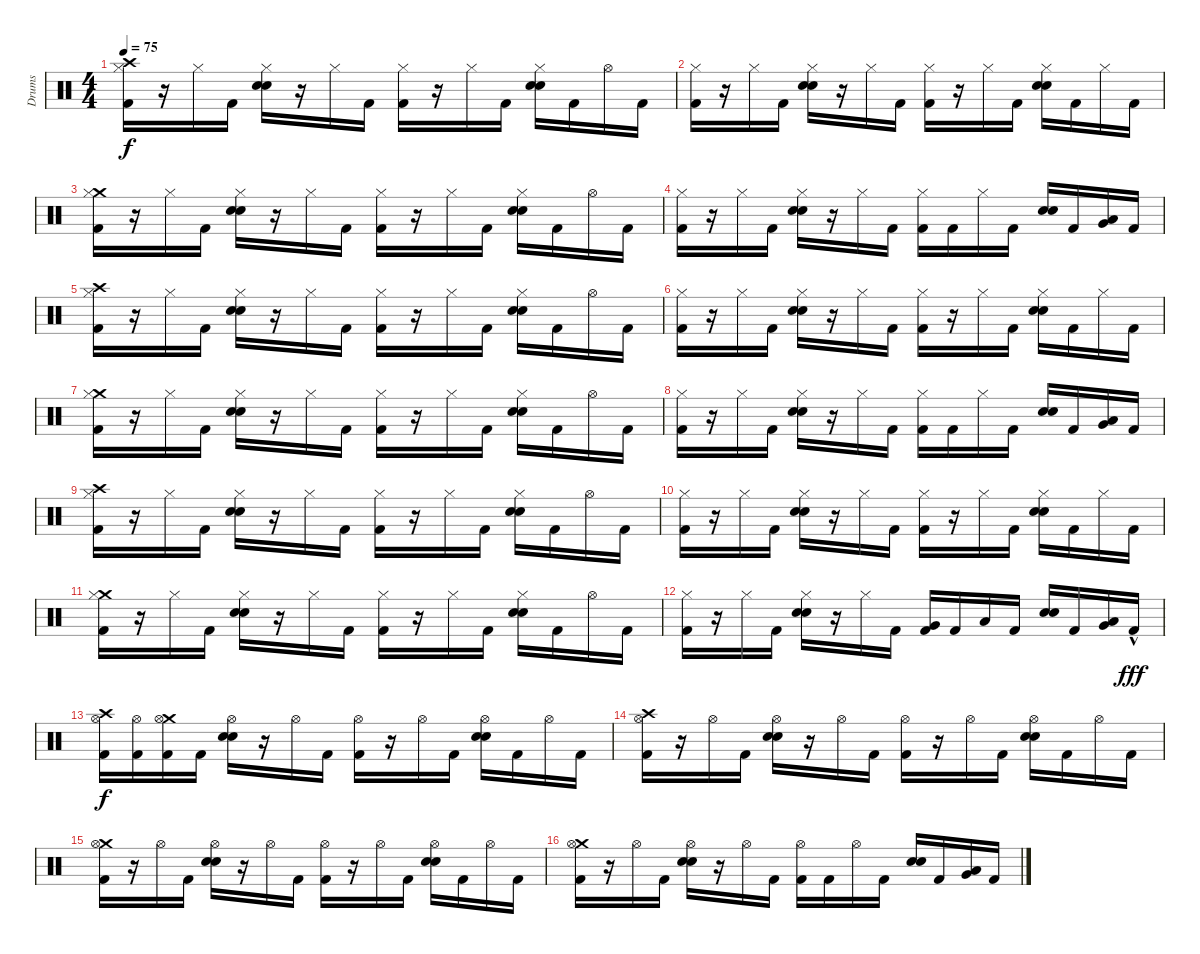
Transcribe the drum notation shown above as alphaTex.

\track ("Drums" "Drums") {instrument percussion}
\staff {score}
\articulation defaults
\ts (4 4)
\tempo 75
\clef neutral
\ks c
("Crash high (hit)" "Hi-Hat (closed)" "Kick (hit) 2").16{dy f} r.16 "Hi-Hat (closed)".16 "Kick (hit) 2".16 ("Hi-Hat (closed)" "Electric Snare (hit)" "Snare (hit) 2").16 r.16 "Hi-Hat (closed)".16 "Kick (hit) 2".16 ("Hi-Hat (closed)" "Kick (hit) 2").16 r.16 "Hi-Hat (closed)".16 "Kick (hit) 2".16 ("Hi-Hat (closed)" "Electric Snare (hit)" "Snare (hit) 2").16 "Kick (hit) 2".16 "Hi-Hat (open)".16 "Kick (hit) 2".16 |
("Hi-Hat (closed)" "Kick (hit) 2").16 r.16 "Hi-Hat (closed)".16 "Kick (hit) 2".16 ("Hi-Hat (closed)" "Electric Snare (hit)" "Snare (hit) 2").16 r.16 "Hi-Hat (closed)".16 "Kick (hit) 2".16 ("Hi-Hat (closed)" "Kick (hit) 2").16 r.16 "Hi-Hat (closed)".16 "Kick (hit) 2".16 ("Hi-Hat (closed)" "Electric Snare (hit)" "Snare (hit) 2").16 "Kick (hit) 2".16 "Hi-Hat (closed)".16 "Kick (hit) 2".16 |
("Crash medium (hit)" "Hi-Hat (closed)" "Kick (hit) 2").16 r.16 "Hi-Hat (closed)".16 "Kick (hit) 2".16 ("Hi-Hat (closed)" "Electric Snare (hit)" "Snare (hit) 2").16 r.16 "Hi-Hat (closed)".16 "Kick (hit) 2".16 ("Hi-Hat (closed)" "Kick (hit) 2").16 r.16 "Hi-Hat (closed)".16 "Kick (hit) 2".16 ("Hi-Hat (closed)" "Electric Snare (hit)" "Snare (hit) 2").16 "Kick (hit) 2".16 "Hi-Hat (open)".16 "Kick (hit) 2".16 |
("Hi-Hat (closed)" "Kick (hit) 2").16 r.16 "Hi-Hat (closed)".16 "Kick (hit) 2".16 ("Hi-Hat (closed)" "Electric Snare (hit)" "Snare (hit) 2").16 r.16 "Hi-Hat (closed)".16 "Kick (hit) 2".16 ("Hi-Hat (closed)" "Kick (hit) 2").16 "Kick (hit) 2".16 "Hi-Hat (closed)".16 "Kick (hit) 2".16 ("Electric Snare (hit)" "Snare (hit) 2").16 "Kick (hit) 2".16 ("Very Low Tom (hit)" "Low Floor Tom (hit)").16 "Kick (hit) 2".16 |
("Crash high (hit)" "Hi-Hat (closed)" "Kick (hit) 2").16 r.16 "Hi-Hat (closed)".16 "Kick (hit) 2".16 ("Hi-Hat (closed)" "Electric Snare (hit)" "Snare (hit) 2").16 r.16 "Hi-Hat (closed)".16 "Kick (hit) 2".16 ("Hi-Hat (closed)" "Kick (hit) 2").16 r.16 "Hi-Hat (closed)".16 "Kick (hit) 2".16 ("Hi-Hat (closed)" "Electric Snare (hit)" "Snare (hit) 2").16 "Kick (hit) 2".16 "Hi-Hat (open)".16 "Kick (hit) 2".16 |
("Hi-Hat (closed)" "Kick (hit) 2").16 r.16 "Hi-Hat (closed)".16 "Kick (hit) 2".16 ("Hi-Hat (closed)" "Electric Snare (hit)" "Snare (hit) 2").16 r.16 "Hi-Hat (closed)".16 "Kick (hit) 2".16 ("Hi-Hat (closed)" "Kick (hit) 2").16 r.16 "Hi-Hat (closed)".16 "Kick (hit) 2".16 ("Hi-Hat (closed)" "Electric Snare (hit)" "Snare (hit) 2").16 "Kick (hit) 2".16 "Hi-Hat (closed)".16 "Kick (hit) 2".16 |
("Crash medium (hit)" "Hi-Hat (closed)" "Kick (hit) 2").16 r.16 "Hi-Hat (closed)".16 "Kick (hit) 2".16 ("Hi-Hat (closed)" "Electric Snare (hit)" "Snare (hit) 2").16 r.16 "Hi-Hat (closed)".16 "Kick (hit) 2".16 ("Hi-Hat (closed)" "Kick (hit) 2").16 r.16 "Hi-Hat (closed)".16 "Kick (hit) 2".16 ("Hi-Hat (closed)" "Electric Snare (hit)" "Snare (hit) 2").16 "Kick (hit) 2".16 "Hi-Hat (open)".16 "Kick (hit) 2".16 |
("Hi-Hat (closed)" "Kick (hit) 2").16 r.16 "Hi-Hat (closed)".16 "Kick (hit) 2".16 ("Hi-Hat (closed)" "Electric Snare (hit)" "Snare (hit) 2").16 r.16 "Hi-Hat (closed)".16 "Kick (hit) 2".16 ("Hi-Hat (closed)" "Kick (hit) 2").16 "Kick (hit) 2".16 "Hi-Hat (closed)".16 "Kick (hit) 2".16 ("Electric Snare (hit)" "Snare (hit) 2").16 "Kick (hit) 2".16 ("Very Low Tom (hit)" "Low Floor Tom (hit)").16 "Kick (hit) 2".16 |
("Crash high (hit)" "Hi-Hat (closed)" "Kick (hit) 2").16 r.16 "Hi-Hat (closed)".16 "Kick (hit) 2".16 ("Hi-Hat (closed)" "Electric Snare (hit)" "Snare (hit) 2").16 r.16 "Hi-Hat (closed)".16 "Kick (hit) 2".16 ("Hi-Hat (closed)" "Kick (hit) 2").16 r.16 "Hi-Hat (closed)".16 "Kick (hit) 2".16 ("Hi-Hat (closed)" "Electric Snare (hit)" "Snare (hit) 2").16 "Kick (hit) 2".16 "Hi-Hat (open)".16 "Kick (hit) 2".16 |
("Hi-Hat (closed)" "Kick (hit) 2").16 r.16 "Hi-Hat (closed)".16 "Kick (hit) 2".16 ("Hi-Hat (closed)" "Electric Snare (hit)" "Snare (hit) 2").16 r.16 "Hi-Hat (closed)".16 "Kick (hit) 2".16 ("Hi-Hat (closed)" "Kick (hit) 2").16 r.16 "Hi-Hat (closed)".16 "Kick (hit) 2".16 ("Hi-Hat (closed)" "Electric Snare (hit)" "Snare (hit) 2").16 "Kick (hit) 2".16 "Hi-Hat (closed)".16 "Kick (hit) 2".16 |
("Crash medium (hit)" "Hi-Hat (closed)" "Kick (hit) 2").16 r.16 "Hi-Hat (closed)".16 "Kick (hit) 2".16 ("Hi-Hat (closed)" "Electric Snare (hit)" "Snare (hit) 2").16 r.16 "Hi-Hat (closed)".16 "Kick (hit) 2".16 ("Hi-Hat (closed)" "Kick (hit) 2").16 r.16 "Hi-Hat (closed)".16 "Kick (hit) 2".16 ("Hi-Hat (closed)" "Electric Snare (hit)" "Snare (hit) 2").16 "Kick (hit) 2".16 "Hi-Hat (open)".16 "Kick (hit) 2".16 |
("Hi-Hat (closed)" "Kick (hit) 2").16 r.16 "Hi-Hat (closed)".16 "Kick (hit) 2".16 ("Hi-Hat (closed)" "Electric Snare (hit)" "Snare (hit) 2").16 r.16 "Hi-Hat (closed)".16 "Kick (hit) 2".16 ("Very Low Tom (hit)" "Kick (hit) 2").16 "Kick (hit) 2".16 "Low Floor Tom (hit)".16 "Kick (hit) 2".16 ("Electric Snare (hit)" "Snare (hit) 2").16 "Kick (hit) 2".16 ("Very Low Tom (hit)" "Low Floor Tom (hit)").16 "Kick (hit) 2"{hac}.16{dy fff} |
("Crash high (hit)" "Hi-Hat (open)" "Kick (hit) 2").16{dy f} ("Hi-Hat (open)" "Kick (hit) 2").16 ("Crash medium (hit)" "Hi-Hat (open)" "Kick (hit) 2").16 "Kick (hit) 2".16 ("Hi-Hat (open)" "Electric Snare (hit)" "Snare (hit) 2").16 r.16 "Hi-Hat (open)".16 "Kick (hit) 2".16 ("Hi-Hat (open)" "Kick (hit) 2").16 r.16 "Hi-Hat (open)".16 "Kick (hit) 2".16 ("Hi-Hat (open)" "Electric Snare (hit)" "Snare (hit) 2").16 "Kick (hit) 2".16 "Hi-Hat (open)".16 "Kick (hit) 2".16 |
("Crash high (hit)" "Hi-Hat (open)" "Kick (hit) 2").16 r.16 "Hi-Hat (open)".16 "Kick (hit) 2".16 ("Hi-Hat (open)" "Electric Snare (hit)" "Snare (hit) 2").16 r.16 "Hi-Hat (open)".16 "Kick (hit) 2".16 ("Hi-Hat (open)" "Kick (hit) 2").16 r.16 "Hi-Hat (open)".16 "Kick (hit) 2".16 ("Hi-Hat (open)" "Electric Snare (hit)" "Snare (hit) 2").16 "Kick (hit) 2".16 "Hi-Hat (open)".16 "Kick (hit) 2".16 |
("Crash medium (hit)" "Hi-Hat (open)" "Kick (hit) 2").16 r.16 "Hi-Hat (open)".16 "Kick (hit) 2".16 ("Hi-Hat (open)" "Electric Snare (hit)" "Snare (hit) 2").16 r.16 "Hi-Hat (open)".16 "Kick (hit) 2".16 ("Hi-Hat (open)" "Kick (hit) 2").16 r.16 "Hi-Hat (open)".16 "Kick (hit) 2".16 ("Hi-Hat (open)" "Electric Snare (hit)" "Snare (hit) 2").16 "Kick (hit) 2".16 "Hi-Hat (open)".16 "Kick (hit) 2".16 |
("Crash medium (hit)" "Hi-Hat (open)" "Kick (hit) 2").16 r.16 "Hi-Hat (open)".16 "Kick (hit) 2".16 ("Hi-Hat (open)" "Electric Snare (hit)" "Snare (hit) 2").16 r.16 "Hi-Hat (open)".16 "Kick (hit) 2".16 ("Hi-Hat (open)" "Kick (hit) 2").16 "Kick (hit) 2".16 "Hi-Hat (open)".16 "Kick (hit) 2".16 ("Electric Snare (hit)" "Snare (hit) 2").16 "Kick (hit) 2".16 ("Very Low Tom (hit)" "Low Floor Tom (hit)").16 "Kick (hit) 2".16
